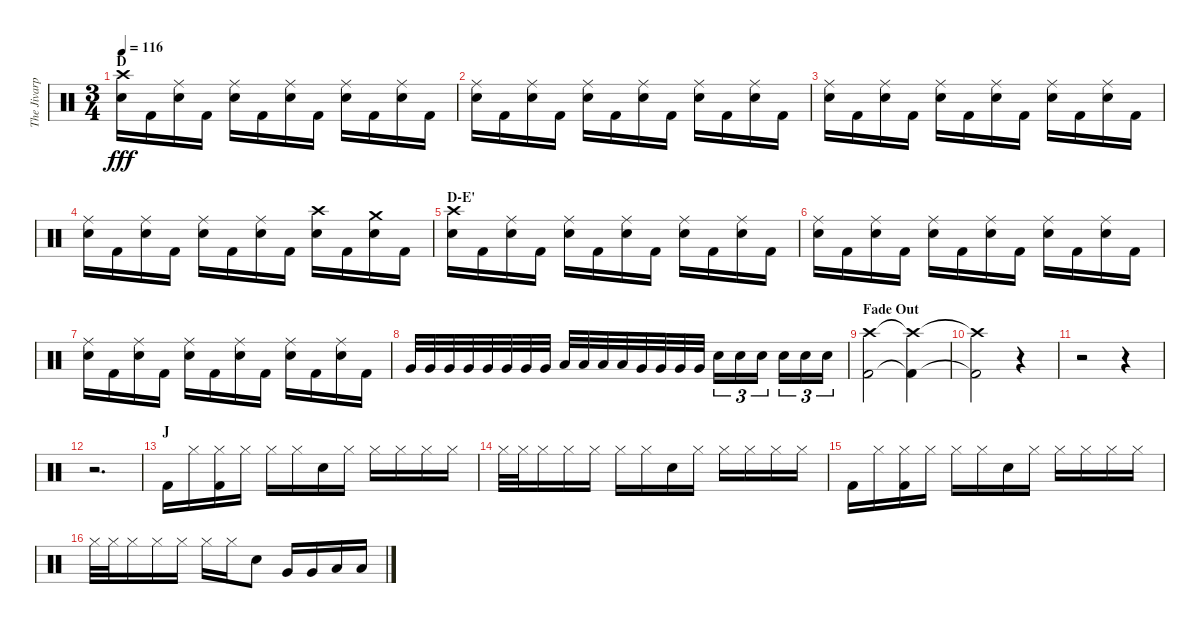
\track ("The Jivarp" "The Jivarp") {instrument percussion}
\staff {score}
\articulation defaults
\ts (3 4)
\section ("" "D")
\tempo 116
\clef neutral
\ks c
("Crash high (hit)" "Electric Snare (hit)").16{dy fff} "Kick (hit) 2".16 ("Ride (middle)" "Electric Snare (hit)").16 "Kick (hit) 2".16 ("Ride (middle)" "Electric Snare (hit)").16 "Kick (hit) 2".16 ("Ride (middle)" "Electric Snare (hit)").16 "Kick (hit) 2".16 ("Ride (middle)" "Electric Snare (hit)").16 "Kick (hit) 2".16 ("Ride (middle)" "Electric Snare (hit)").16 "Kick (hit) 2".16 |
("Ride (middle)" "Electric Snare (hit)").16 "Kick (hit) 2".16 ("Ride (middle)" "Electric Snare (hit)").16 "Kick (hit) 2".16 ("Ride (middle)" "Electric Snare (hit)").16 "Kick (hit) 2".16 ("Ride (middle)" "Electric Snare (hit)").16 "Kick (hit) 2".16 ("Ride (middle)" "Electric Snare (hit)").16 "Kick (hit) 2".16 ("Ride (middle)" "Electric Snare (hit)").16 "Kick (hit) 2".16 |
("Ride (middle)" "Electric Snare (hit)").16 "Kick (hit) 2".16 ("Ride (middle)" "Electric Snare (hit)").16 "Kick (hit) 2".16 ("Ride (middle)" "Electric Snare (hit)").16 "Kick (hit) 2".16 ("Ride (middle)" "Electric Snare (hit)").16 "Kick (hit) 2".16 ("Ride (middle)" "Electric Snare (hit)").16 "Kick (hit) 2".16 ("Ride (middle)" "Electric Snare (hit)").16 "Kick (hit) 2".16 |
("Ride (middle)" "Electric Snare (hit)").16 "Kick (hit) 2".16 ("Ride (middle)" "Electric Snare (hit)").16 "Kick (hit) 2".16 ("Ride (middle)" "Electric Snare (hit)").16 "Kick (hit) 2".16 ("Ride (middle)" "Electric Snare (hit)").16 "Kick (hit) 2".16 ("Crash high (hit)" "Electric Snare (hit)").16 "Kick (hit) 2".16 ("Crash medium (hit)" "Electric Snare (hit)").16 "Kick (hit) 2".16 |
\section ("" "D-E'")
("Crash high (hit)" "Electric Snare (hit)").16 "Kick (hit) 2".16 ("Ride (middle)" "Electric Snare (hit)").16 "Kick (hit) 2".16 ("Ride (middle)" "Electric Snare (hit)").16 "Kick (hit) 2".16 ("Ride (middle)" "Electric Snare (hit)").16 "Kick (hit) 2".16 ("Ride (middle)" "Electric Snare (hit)").16 "Kick (hit) 2".16 ("Ride (middle)" "Electric Snare (hit)").16 "Kick (hit) 2".16 |
("Ride (middle)" "Electric Snare (hit)").16 "Kick (hit) 2".16 ("Ride (middle)" "Electric Snare (hit)").16 "Kick (hit) 2".16 ("Ride (middle)" "Electric Snare (hit)").16 "Kick (hit) 2".16 ("Ride (middle)" "Electric Snare (hit)").16 "Kick (hit) 2".16 ("Ride (middle)" "Electric Snare (hit)").16 "Kick (hit) 2".16 ("Ride (middle)" "Electric Snare (hit)").16 "Kick (hit) 2".16 |
("Ride (middle)" "Electric Snare (hit)").16 "Kick (hit) 2".16 ("Ride (middle)" "Electric Snare (hit)").16 "Kick (hit) 2".16 ("Ride (middle)" "Electric Snare (hit)").16 "Kick (hit) 2".16 ("Ride (middle)" "Electric Snare (hit)").16 "Kick (hit) 2".16 ("Ride (middle)" "Electric Snare (hit)").16 "Kick (hit) 2".16 ("Ride (middle)" "Electric Snare (hit)").16 "Kick (hit) 2".16 |
"Very Low Tom (hit)".32 "Very Low Tom (hit)".32 "Very Low Tom (hit)".32 "Very Low Tom (hit)".32 "Very Low Tom (hit)".32 "Very Low Tom (hit)".32 "Very Low Tom (hit)".32 "Very Low Tom (hit)".32 "Low Tom (hit)".32 "Low Tom (hit)".32 "Low Tom (hit)".32 "Low Tom (hit)".32 "Very Low Tom (hit)".32 "Very Low Tom (hit)".32 "Very Low Tom (hit)".32 "Very Low Tom (hit)".32 "Electric Snare (hit)".16{tu (3 2)} "Electric Snare (hit)".16{tu (3 2)} "Electric Snare (hit)".16{tu (3 2) beam splitsecondary} "Electric Snare (hit)".16{tu (3 2)} "Electric Snare (hit)".16{tu (3 2)} "Electric Snare (hit)".16{tu (3 2)} |
\section ("" "Fade Out")
("Crash high (hit)" "Kick (hit) 2").2 ("Crash high (hit)"{t} "Kick (hit) 2"{t}).4 |
("Crash high (hit)"{t} "Kick (hit) 2"{t}).2 r.4 |
r.2 r.4 |
r.2{d} |
\section ("" "J")
"Kick (hit) 2".16 "Hi-Hat (closed)".16 ("Hi-Hat (closed)" "Kick (hit) 2").16 "Hi-Hat (closed)".16 "Hi-Hat (closed)".16 "Hi-Hat (closed)".16 "Electric Snare (hit)".16 "Hi-Hat (closed)".16 "Hi-Hat (closed)".16 "Hi-Hat (closed)".16 "Hi-Hat (closed)".16 "Hi-Hat (closed)".16 |
"Hi-Hat (closed)".32 "Hi-Hat (closed)".32 "Hi-Hat (closed)".16 "Hi-Hat (closed)".16 "Hi-Hat (closed)".16 "Hi-Hat (closed)".16 "Hi-Hat (closed)".16 "Electric Snare (hit)".16 "Hi-Hat (closed)".16 "Hi-Hat (closed)".16 "Hi-Hat (closed)".16 "Hi-Hat (closed)".16 "Hi-Hat (closed)".16 |
"Kick (hit) 2".16 "Hi-Hat (closed)".16 ("Hi-Hat (closed)" "Kick (hit) 2").16 "Hi-Hat (closed)".16 "Hi-Hat (closed)".16 "Hi-Hat (closed)".16 "Electric Snare (hit)".16 "Hi-Hat (closed)".16 "Hi-Hat (closed)".16 "Hi-Hat (closed)".16 "Hi-Hat (closed)".16 "Hi-Hat (closed)".16 |
"Hi-Hat (closed)".32 "Hi-Hat (closed)".32 "Hi-Hat (closed)".16 "Hi-Hat (closed)".16 "Hi-Hat (closed)".16 "Hi-Hat (closed)".16 "Hi-Hat (closed)".16 "Electric Snare (hit)".8 "Very Low Tom (hit)".16 "Very Low Tom (hit)".16 "Low Tom (hit)".16 "Low Tom (hit)".16
